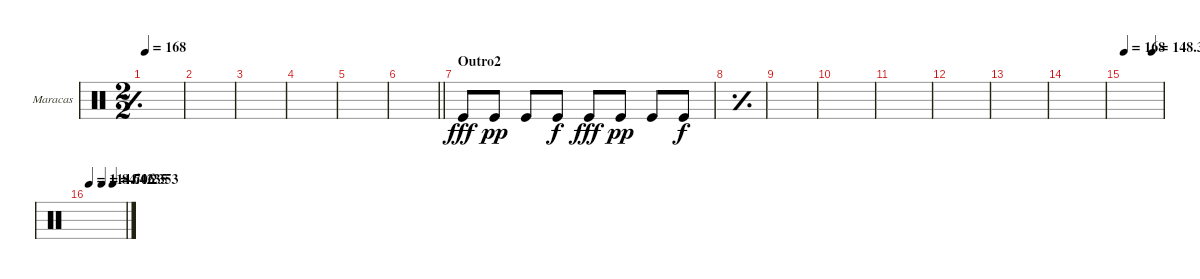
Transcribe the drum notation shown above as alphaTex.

\bracketExtendMode groupsimilarinstruments
\multiTrackTrackNamePolicy hidden
\firstSystemTrackNameOrientation horizontal
\otherSystemsTrackNameOrientation horizontal
\track ("Maracas" "Maracas") {mute instrument percussion}
\staff {score}
\articulation defaults
\ts (2 2)
\tempo 168
\clef neutral
\simile simple
\ks c
|
|
|
|
|
\barLineRight lightlight
|
\section ("" "Outro2")
\simile none "Kick (hit)".8{dy fff} "Kick (hit)".8{dy pp} "Kick (hit)".8 "Kick (hit)".8{dy f} "Kick (hit)".8{dy fff} "Kick (hit)".8{dy pp} "Kick (hit)".8 "Kick (hit)".8{dy f}
|
\simile simple
|
|
|
|
|
|
|
\tempo 168
\tempo (148.353 0.734266)
|
\tempo (114.706 0.027972)
\tempo (84.4235 0.370629)
\tempo (64.2353 0.66875)
